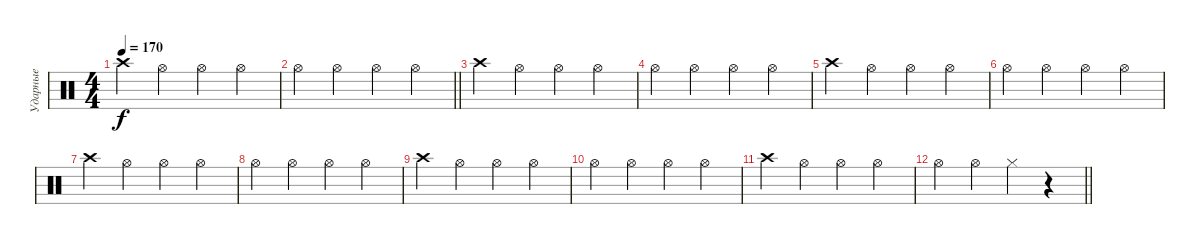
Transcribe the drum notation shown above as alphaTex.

\track ("Ударные" "Ударные") {instrument percussion}
\staff {score}
\articulation defaults
\ts (4 4)
\tempo 170
\clef neutral
\ks c "Crash high (hit)".4{dy f} "Hi-Hat (open)".4 "Hi-Hat (open)".4 "Hi-Hat (open)".4
|
\barLineRight lightlight "Hi-Hat (open)".4 "Hi-Hat (open)".4 "Hi-Hat (open)".4 "Hi-Hat (open)".4
|
"Crash high (hit)".4 "Hi-Hat (open)".4 "Hi-Hat (open)".4 "Hi-Hat (open)".4 |
"Hi-Hat (open)".4 "Hi-Hat (open)".4 "Hi-Hat (open)".4 "Hi-Hat (open)".4 |
"Crash high (hit)".4 "Hi-Hat (open)".4 "Hi-Hat (open)".4 "Hi-Hat (open)".4 |
"Hi-Hat (open)".4 "Hi-Hat (open)".4 "Hi-Hat (open)".4 "Hi-Hat (open)".4 |
"Crash high (hit)".4 "Hi-Hat (open)".4 "Hi-Hat (open)".4 "Hi-Hat (open)".4 |
"Hi-Hat (open)".4 "Hi-Hat (open)".4 "Hi-Hat (open)".4 "Hi-Hat (open)".4 |
"Crash high (hit)".4 "Hi-Hat (open)".4 "Hi-Hat (open)".4 "Hi-Hat (open)".4 |
"Hi-Hat (open)".4 "Hi-Hat (open)".4 "Hi-Hat (open)".4 "Hi-Hat (open)".4 |
"Crash high (hit)".4 "Hi-Hat (open)".4 "Hi-Hat (open)".4 "Hi-Hat (open)".4 |
\barLineRight lightlight "Hi-Hat (open)".4 "Hi-Hat (open)".4 "Hi-Hat (closed)".4
r.4
